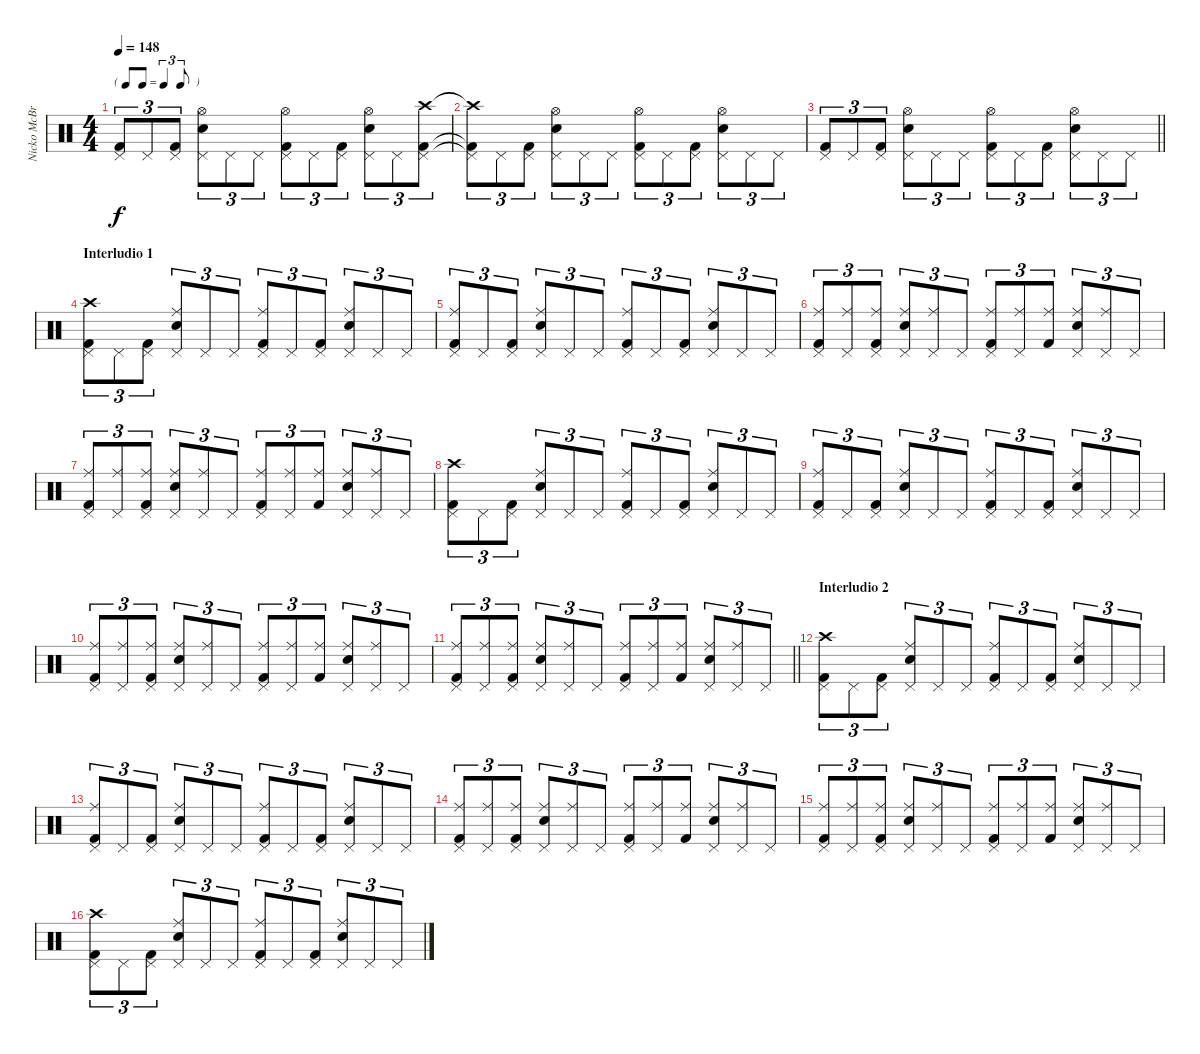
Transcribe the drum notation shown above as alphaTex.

\track ("Nicko McBrain" "Nicko McBr") {instrument percussion}
\staff {score}
\articulation defaults
\ts (4 4)
\tf triplet8th
\tempo 148
\clef neutral
\ks c
("Kick (hit) 2" "Pedal Hi-Hat (hit)").8{tu (3 2) dy f} "Pedal Hi-Hat (hit)".8{tu (3 2)} ("Kick (hit) 2" "Pedal Hi-Hat (hit)").8{tu (3 2)} ("Snare (hit) 2" "Pedal Hi-Hat (hit)" "Hi-Hat (open)").8{tu (3 2)} "Pedal Hi-Hat (hit)".8{tu (3 2)} "Pedal Hi-Hat (hit)".8{tu (3 2)} ("Kick (hit) 2" "Pedal Hi-Hat (hit)" "Hi-Hat (open)").8{tu (3 2)} "Pedal Hi-Hat (hit)".8{tu (3 2)} ("Kick (hit) 2" "Pedal Hi-Hat (hit)").8{tu (3 2)} ("Snare (hit) 2" "Pedal Hi-Hat (hit)" "Hi-Hat (open)").8{tu (3 2)} "Pedal Hi-Hat (hit)".8{tu (3 2)} ("Kick (hit) 2" "Pedal Hi-Hat (hit)" "Crash high (hit)").8{tu (3 2)} |
("Kick (hit) 2"{t} "Pedal Hi-Hat (hit)"{t} "Crash high (hit)"{t}).8{tu (3 2)} "Pedal Hi-Hat (hit)".8{tu (3 2)} ("Kick (hit) 2" "Pedal Hi-Hat (hit)").8{tu (3 2)} ("Snare (hit) 2" "Pedal Hi-Hat (hit)" "Hi-Hat (open)").8{tu (3 2)} "Pedal Hi-Hat (hit)".8{tu (3 2)} "Pedal Hi-Hat (hit)".8{tu (3 2)} ("Kick (hit) 2" "Pedal Hi-Hat (hit)" "Hi-Hat (open)").8{tu (3 2)} "Pedal Hi-Hat (hit)".8{tu (3 2)} ("Kick (hit) 2" "Pedal Hi-Hat (hit)").8{tu (3 2)} ("Snare (hit) 2" "Pedal Hi-Hat (hit)" "Hi-Hat (open)").8{tu (3 2)} "Pedal Hi-Hat (hit)".8{tu (3 2)} "Pedal Hi-Hat (hit)".8{tu (3 2)} |
\barLineRight lightlight
("Kick (hit) 2" "Pedal Hi-Hat (hit)").8{tu (3 2)} "Pedal Hi-Hat (hit)".8{tu (3 2)} ("Kick (hit) 2" "Pedal Hi-Hat (hit)").8{tu (3 2)} ("Snare (hit) 2" "Pedal Hi-Hat (hit)" "Hi-Hat (open)").8{tu (3 2)} "Pedal Hi-Hat (hit)".8{tu (3 2)} "Pedal Hi-Hat (hit)".8{tu (3 2)} ("Kick (hit) 2" "Pedal Hi-Hat (hit)" "Hi-Hat (open)").8{tu (3 2)} "Pedal Hi-Hat (hit)".8{tu (3 2)} ("Kick (hit) 2" "Pedal Hi-Hat (hit)").8{tu (3 2)} ("Snare (hit) 2" "Pedal Hi-Hat (hit)" "Hi-Hat (open)").8{tu (3 2)} "Pedal Hi-Hat (hit)".8{tu (3 2)} "Pedal Hi-Hat (hit)".8{tu (3 2)} |
\section ("" "Interludio 1")
("Kick (hit) 2" "Pedal Hi-Hat (hit)" "Crash high (hit)").8{tu (3 2)} "Pedal Hi-Hat (hit)".8{tu (3 2)} ("Kick (hit) 2" "Pedal Hi-Hat (hit)").8{tu (3 2)} ("Snare (hit) 2" "Pedal Hi-Hat (hit)" "Ride (middle)").8{tu (3 2)} "Pedal Hi-Hat (hit)".8{tu (3 2)} "Pedal Hi-Hat (hit)".8{tu (3 2)} ("Kick (hit) 2" "Pedal Hi-Hat (hit)" "Ride (middle)").8{tu (3 2)} "Pedal Hi-Hat (hit)".8{tu (3 2)} ("Kick (hit) 2" "Pedal Hi-Hat (hit)").8{tu (3 2)} ("Snare (hit) 2" "Pedal Hi-Hat (hit)" "Ride (middle)").8{tu (3 2)} "Pedal Hi-Hat (hit)".8{tu (3 2)} "Pedal Hi-Hat (hit)".8{tu (3 2)} |
("Kick (hit) 2" "Pedal Hi-Hat (hit)" "Ride (middle)").8{tu (3 2)} "Pedal Hi-Hat (hit)".8{tu (3 2)} ("Kick (hit) 2" "Pedal Hi-Hat (hit)").8{tu (3 2)} ("Snare (hit) 2" "Pedal Hi-Hat (hit)" "Ride (middle)").8{tu (3 2)} "Pedal Hi-Hat (hit)".8{tu (3 2)} "Pedal Hi-Hat (hit)".8{tu (3 2)} ("Kick (hit) 2" "Pedal Hi-Hat (hit)" "Ride (middle)").8{tu (3 2)} "Pedal Hi-Hat (hit)".8{tu (3 2)} ("Kick (hit) 2" "Pedal Hi-Hat (hit)").8{tu (3 2)} ("Snare (hit) 2" "Pedal Hi-Hat (hit)" "Ride (middle)").8{tu (3 2)} "Pedal Hi-Hat (hit)".8{tu (3 2)} "Pedal Hi-Hat (hit)".8{tu (3 2)} |
("Kick (hit) 2" "Pedal Hi-Hat (hit)" "Ride (middle)").8{tu (3 2)} ("Pedal Hi-Hat (hit)" "Ride (middle)").8{tu (3 2)} ("Kick (hit) 2" "Pedal Hi-Hat (hit)" "Ride (middle)").8{tu (3 2)} ("Snare (hit) 2" "Pedal Hi-Hat (hit)" "Ride (middle)").8{tu (3 2)} ("Pedal Hi-Hat (hit)" "Ride (middle)").8{tu (3 2)} "Pedal Hi-Hat (hit)".8{tu (3 2)} ("Kick (hit) 2" "Pedal Hi-Hat (hit)" "Ride (middle)").8{tu (3 2)} ("Pedal Hi-Hat (hit)" "Ride (middle)").8{tu (3 2)} ("Kick (hit) 2" "Ride (middle)").8{tu (3 2)} ("Snare (hit) 2" "Pedal Hi-Hat (hit)" "Ride (middle)").8{tu (3 2)} ("Pedal Hi-Hat (hit)" "Ride (middle)").8{tu (3 2)} "Pedal Hi-Hat (hit)".8{tu (3 2)} |
("Kick (hit) 2" "Pedal Hi-Hat (hit)" "Ride (middle)").8{tu (3 2)} ("Pedal Hi-Hat (hit)" "Ride (middle)").8{tu (3 2)} ("Kick (hit) 2" "Pedal Hi-Hat (hit)" "Ride (middle)").8{tu (3 2)} ("Snare (hit) 2" "Pedal Hi-Hat (hit)" "Ride (middle)").8{tu (3 2)} ("Pedal Hi-Hat (hit)" "Ride (middle)").8{tu (3 2)} "Pedal Hi-Hat (hit)".8{tu (3 2)} ("Kick (hit) 2" "Pedal Hi-Hat (hit)" "Ride (middle)").8{tu (3 2)} ("Pedal Hi-Hat (hit)" "Ride (middle)").8{tu (3 2)} ("Kick (hit) 2" "Ride (middle)").8{tu (3 2)} ("Snare (hit) 2" "Pedal Hi-Hat (hit)" "Ride (middle)").8{tu (3 2)} ("Pedal Hi-Hat (hit)" "Ride (middle)").8{tu (3 2)} "Pedal Hi-Hat (hit)".8{tu (3 2)} |
("Kick (hit) 2" "Pedal Hi-Hat (hit)" "Crash high (hit)").8{tu (3 2)} "Pedal Hi-Hat (hit)".8{tu (3 2)} ("Kick (hit) 2" "Pedal Hi-Hat (hit)").8{tu (3 2)} ("Snare (hit) 2" "Pedal Hi-Hat (hit)" "Ride (middle)").8{tu (3 2)} "Pedal Hi-Hat (hit)".8{tu (3 2)} "Pedal Hi-Hat (hit)".8{tu (3 2)} ("Kick (hit) 2" "Pedal Hi-Hat (hit)" "Ride (middle)").8{tu (3 2)} "Pedal Hi-Hat (hit)".8{tu (3 2)} ("Kick (hit) 2" "Pedal Hi-Hat (hit)").8{tu (3 2)} ("Snare (hit) 2" "Pedal Hi-Hat (hit)" "Ride (middle)").8{tu (3 2)} "Pedal Hi-Hat (hit)".8{tu (3 2)} "Pedal Hi-Hat (hit)".8{tu (3 2)} |
("Kick (hit) 2" "Pedal Hi-Hat (hit)" "Ride (middle)").8{tu (3 2)} "Pedal Hi-Hat (hit)".8{tu (3 2)} ("Kick (hit) 2" "Pedal Hi-Hat (hit)").8{tu (3 2)} ("Snare (hit) 2" "Pedal Hi-Hat (hit)" "Ride (middle)").8{tu (3 2)} "Pedal Hi-Hat (hit)".8{tu (3 2)} "Pedal Hi-Hat (hit)".8{tu (3 2)} ("Kick (hit) 2" "Pedal Hi-Hat (hit)" "Ride (middle)").8{tu (3 2)} "Pedal Hi-Hat (hit)".8{tu (3 2)} ("Kick (hit) 2" "Pedal Hi-Hat (hit)").8{tu (3 2)} ("Snare (hit) 2" "Pedal Hi-Hat (hit)" "Ride (middle)").8{tu (3 2)} "Pedal Hi-Hat (hit)".8{tu (3 2)} "Pedal Hi-Hat (hit)".8{tu (3 2)} |
("Kick (hit) 2" "Pedal Hi-Hat (hit)" "Ride (middle)").8{tu (3 2)} ("Pedal Hi-Hat (hit)" "Ride (middle)").8{tu (3 2)} ("Kick (hit) 2" "Pedal Hi-Hat (hit)" "Ride (middle)").8{tu (3 2)} ("Snare (hit) 2" "Pedal Hi-Hat (hit)" "Ride (middle)").8{tu (3 2)} ("Pedal Hi-Hat (hit)" "Ride (middle)").8{tu (3 2)} "Pedal Hi-Hat (hit)".8{tu (3 2)} ("Kick (hit) 2" "Pedal Hi-Hat (hit)" "Ride (middle)").8{tu (3 2)} ("Pedal Hi-Hat (hit)" "Ride (middle)").8{tu (3 2)} ("Kick (hit) 2" "Ride (middle)").8{tu (3 2)} ("Snare (hit) 2" "Pedal Hi-Hat (hit)" "Ride (middle)").8{tu (3 2)} ("Pedal Hi-Hat (hit)" "Ride (middle)").8{tu (3 2)} "Pedal Hi-Hat (hit)".8{tu (3 2)} |
\barLineRight lightlight
("Kick (hit) 2" "Pedal Hi-Hat (hit)" "Ride (middle)").8{tu (3 2)} ("Pedal Hi-Hat (hit)" "Ride (middle)").8{tu (3 2)} ("Kick (hit) 2" "Pedal Hi-Hat (hit)" "Ride (middle)").8{tu (3 2)} ("Snare (hit) 2" "Pedal Hi-Hat (hit)" "Ride (middle)").8{tu (3 2)} ("Pedal Hi-Hat (hit)" "Ride (middle)").8{tu (3 2)} "Pedal Hi-Hat (hit)".8{tu (3 2)} ("Kick (hit) 2" "Pedal Hi-Hat (hit)" "Ride (middle)").8{tu (3 2)} ("Pedal Hi-Hat (hit)" "Ride (middle)").8{tu (3 2)} ("Kick (hit) 2" "Ride (middle)").8{tu (3 2)} ("Snare (hit) 2" "Pedal Hi-Hat (hit)" "Ride (middle)").8{tu (3 2)} ("Pedal Hi-Hat (hit)" "Ride (middle)").8{tu (3 2)} "Pedal Hi-Hat (hit)".8{tu (3 2)} |
\section ("" "Interludio 2")
("Kick (hit) 2" "Pedal Hi-Hat (hit)" "Crash high (hit)").8{tu (3 2)} "Pedal Hi-Hat (hit)".8{tu (3 2)} ("Kick (hit) 2" "Pedal Hi-Hat (hit)").8{tu (3 2)} ("Snare (hit) 2" "Pedal Hi-Hat (hit)" "Ride (middle)").8{tu (3 2)} "Pedal Hi-Hat (hit)".8{tu (3 2)} "Pedal Hi-Hat (hit)".8{tu (3 2)} ("Kick (hit) 2" "Pedal Hi-Hat (hit)" "Ride (middle)").8{tu (3 2)} "Pedal Hi-Hat (hit)".8{tu (3 2)} ("Kick (hit) 2" "Pedal Hi-Hat (hit)").8{tu (3 2)} ("Snare (hit) 2" "Pedal Hi-Hat (hit)" "Ride (middle)").8{tu (3 2)} "Pedal Hi-Hat (hit)".8{tu (3 2)} "Pedal Hi-Hat (hit)".8{tu (3 2)} |
("Kick (hit) 2" "Pedal Hi-Hat (hit)" "Ride (middle)").8{tu (3 2)} "Pedal Hi-Hat (hit)".8{tu (3 2)} ("Kick (hit) 2" "Pedal Hi-Hat (hit)").8{tu (3 2)} ("Snare (hit) 2" "Pedal Hi-Hat (hit)" "Ride (middle)").8{tu (3 2)} "Pedal Hi-Hat (hit)".8{tu (3 2)} "Pedal Hi-Hat (hit)".8{tu (3 2)} ("Kick (hit) 2" "Pedal Hi-Hat (hit)" "Ride (middle)").8{tu (3 2)} "Pedal Hi-Hat (hit)".8{tu (3 2)} ("Kick (hit) 2" "Pedal Hi-Hat (hit)").8{tu (3 2)} ("Snare (hit) 2" "Pedal Hi-Hat (hit)" "Ride (middle)").8{tu (3 2)} "Pedal Hi-Hat (hit)".8{tu (3 2)} "Pedal Hi-Hat (hit)".8{tu (3 2)} |
("Kick (hit) 2" "Pedal Hi-Hat (hit)" "Ride (middle)").8{tu (3 2)} ("Pedal Hi-Hat (hit)" "Ride (middle)").8{tu (3 2)} ("Kick (hit) 2" "Pedal Hi-Hat (hit)" "Ride (middle)").8{tu (3 2)} ("Snare (hit) 2" "Pedal Hi-Hat (hit)" "Ride (middle)").8{tu (3 2)} ("Pedal Hi-Hat (hit)" "Ride (middle)").8{tu (3 2)} "Pedal Hi-Hat (hit)".8{tu (3 2)} ("Kick (hit) 2" "Pedal Hi-Hat (hit)" "Ride (middle)").8{tu (3 2)} ("Pedal Hi-Hat (hit)" "Ride (middle)").8{tu (3 2)} ("Kick (hit) 2" "Ride (middle)").8{tu (3 2)} ("Snare (hit) 2" "Pedal Hi-Hat (hit)" "Ride (middle)").8{tu (3 2)} ("Pedal Hi-Hat (hit)" "Ride (middle)").8{tu (3 2)} "Pedal Hi-Hat (hit)".8{tu (3 2)} |
("Kick (hit) 2" "Pedal Hi-Hat (hit)" "Ride (middle)").8{tu (3 2)} ("Pedal Hi-Hat (hit)" "Ride (middle)").8{tu (3 2)} ("Kick (hit) 2" "Pedal Hi-Hat (hit)" "Ride (middle)").8{tu (3 2)} ("Snare (hit) 2" "Pedal Hi-Hat (hit)" "Ride (middle)").8{tu (3 2)} ("Pedal Hi-Hat (hit)" "Ride (middle)").8{tu (3 2)} "Pedal Hi-Hat (hit)".8{tu (3 2)} ("Kick (hit) 2" "Pedal Hi-Hat (hit)" "Ride (middle)").8{tu (3 2)} ("Pedal Hi-Hat (hit)" "Ride (middle)").8{tu (3 2)} ("Kick (hit) 2" "Ride (middle)").8{tu (3 2)} ("Snare (hit) 2" "Pedal Hi-Hat (hit)" "Ride (middle)").8{tu (3 2)} ("Pedal Hi-Hat (hit)" "Ride (middle)").8{tu (3 2)} "Pedal Hi-Hat (hit)".8{tu (3 2)} |
("Kick (hit) 2" "Pedal Hi-Hat (hit)" "Crash high (hit)").8{tu (3 2)} "Pedal Hi-Hat (hit)".8{tu (3 2)} ("Kick (hit) 2" "Pedal Hi-Hat (hit)").8{tu (3 2)} ("Snare (hit) 2" "Pedal Hi-Hat (hit)" "Ride (middle)").8{tu (3 2)} "Pedal Hi-Hat (hit)".8{tu (3 2)} "Pedal Hi-Hat (hit)".8{tu (3 2)} ("Kick (hit) 2" "Pedal Hi-Hat (hit)" "Ride (middle)").8{tu (3 2)} "Pedal Hi-Hat (hit)".8{tu (3 2)} ("Kick (hit) 2" "Pedal Hi-Hat (hit)").8{tu (3 2)} ("Snare (hit) 2" "Pedal Hi-Hat (hit)" "Ride (middle)").8{tu (3 2)} "Pedal Hi-Hat (hit)".8{tu (3 2)} "Pedal Hi-Hat (hit)".8{tu (3 2)}
